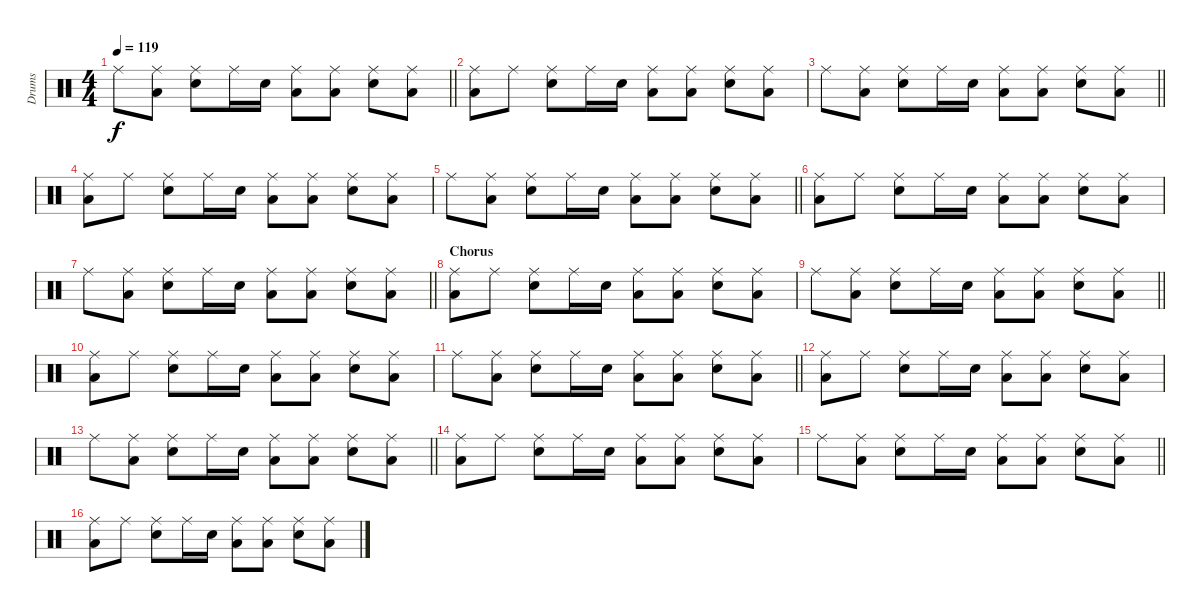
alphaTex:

\track ("Drums" "Drums") {instrument percussion}
\staff {score}
\articulation defaults
\ts (4 4)
\tempo 119
\clef neutral
\barLineRight lightlight
\ks c "Ride (middle)".8{dy f}
("Ride (middle)" "Low Floor Tom (hit)").8 ("Ride (middle)" "Electric Snare (hit)").8 "Ride (middle)".16 "Electric Snare (hit)".16 ("Ride (middle)" "Low Floor Tom (hit)").8 ("Ride (middle)" "Low Floor Tom (hit)").8 ("Ride (middle)" "Electric Snare (hit)").8 ("Ride (middle)" "Low Floor Tom (hit)").8 |
("Ride (middle)" "Low Floor Tom (hit)").8 "Ride (middle)".8 ("Ride (middle)" "Electric Snare (hit)").8 "Ride (middle)".16 "Electric Snare (hit)".16 ("Ride (middle)" "Low Floor Tom (hit)").8 ("Ride (middle)" "Low Floor Tom (hit)").8 ("Ride (middle)" "Electric Snare (hit)").8 ("Ride (middle)" "Low Floor Tom (hit)").8 |
\barLineRight lightlight "Ride (middle)".8
("Ride (middle)" "Low Floor Tom (hit)").8 ("Ride (middle)" "Electric Snare (hit)").8 "Ride (middle)".16 "Electric Snare (hit)".16 ("Ride (middle)" "Low Floor Tom (hit)").8 ("Ride (middle)" "Low Floor Tom (hit)").8 ("Ride (middle)" "Electric Snare (hit)").8 ("Ride (middle)" "Low Floor Tom (hit)").8 |
("Ride (middle)" "Low Floor Tom (hit)").8 "Ride (middle)".8 ("Ride (middle)" "Electric Snare (hit)").8 "Ride (middle)".16 "Electric Snare (hit)".16 ("Ride (middle)" "Low Floor Tom (hit)").8 ("Ride (middle)" "Low Floor Tom (hit)").8 ("Ride (middle)" "Electric Snare (hit)").8 ("Ride (middle)" "Low Floor Tom (hit)").8 |
\barLineRight lightlight "Ride (middle)".8
("Ride (middle)" "Low Floor Tom (hit)").8 ("Ride (middle)" "Electric Snare (hit)").8 "Ride (middle)".16 "Electric Snare (hit)".16 ("Ride (middle)" "Low Floor Tom (hit)").8 ("Ride (middle)" "Low Floor Tom (hit)").8 ("Ride (middle)" "Electric Snare (hit)").8 ("Ride (middle)" "Low Floor Tom (hit)").8 |
("Ride (middle)" "Low Floor Tom (hit)").8 "Ride (middle)".8 ("Ride (middle)" "Electric Snare (hit)").8 "Ride (middle)".16 "Electric Snare (hit)".16 ("Ride (middle)" "Low Floor Tom (hit)").8 ("Ride (middle)" "Low Floor Tom (hit)").8 ("Ride (middle)" "Electric Snare (hit)").8 ("Ride (middle)" "Low Floor Tom (hit)").8 |
\barLineRight lightlight "Ride (middle)".8
("Ride (middle)" "Low Floor Tom (hit)").8 ("Ride (middle)" "Electric Snare (hit)").8 "Ride (middle)".16 "Electric Snare (hit)".16 ("Ride (middle)" "Low Floor Tom (hit)").8 ("Ride (middle)" "Low Floor Tom (hit)").8 ("Ride (middle)" "Electric Snare (hit)").8 ("Ride (middle)" "Low Floor Tom (hit)").8 |
\section ("" "Chorus")
("Ride (middle)" "Low Floor Tom (hit)").8 "Ride (middle)".8 ("Ride (middle)" "Electric Snare (hit)").8 "Ride (middle)".16 "Electric Snare (hit)".16 ("Ride (middle)" "Low Floor Tom (hit)").8 ("Ride (middle)" "Low Floor Tom (hit)").8 ("Ride (middle)" "Electric Snare (hit)").8 ("Ride (middle)" "Low Floor Tom (hit)").8 |
\barLineRight lightlight "Ride (middle)".8
("Ride (middle)" "Low Floor Tom (hit)").8 ("Ride (middle)" "Electric Snare (hit)").8 "Ride (middle)".16 "Electric Snare (hit)".16 ("Ride (middle)" "Low Floor Tom (hit)").8 ("Ride (middle)" "Low Floor Tom (hit)").8 ("Ride (middle)" "Electric Snare (hit)").8 ("Ride (middle)" "Low Floor Tom (hit)").8 |
("Ride (middle)" "Low Floor Tom (hit)").8 "Ride (middle)".8 ("Ride (middle)" "Electric Snare (hit)").8 "Ride (middle)".16 "Electric Snare (hit)".16 ("Ride (middle)" "Low Floor Tom (hit)").8 ("Ride (middle)" "Low Floor Tom (hit)").8 ("Ride (middle)" "Electric Snare (hit)").8 ("Ride (middle)" "Low Floor Tom (hit)").8 |
\barLineRight lightlight "Ride (middle)".8
("Ride (middle)" "Low Floor Tom (hit)").8 ("Ride (middle)" "Electric Snare (hit)").8 "Ride (middle)".16 "Electric Snare (hit)".16 ("Ride (middle)" "Low Floor Tom (hit)").8 ("Ride (middle)" "Low Floor Tom (hit)").8 ("Ride (middle)" "Electric Snare (hit)").8 ("Ride (middle)" "Low Floor Tom (hit)").8 |
("Ride (middle)" "Low Floor Tom (hit)").8 "Ride (middle)".8 ("Ride (middle)" "Electric Snare (hit)").8 "Ride (middle)".16 "Electric Snare (hit)".16 ("Ride (middle)" "Low Floor Tom (hit)").8 ("Ride (middle)" "Low Floor Tom (hit)").8 ("Ride (middle)" "Electric Snare (hit)").8 ("Ride (middle)" "Low Floor Tom (hit)").8 |
\barLineRight lightlight "Ride (middle)".8
("Ride (middle)" "Low Floor Tom (hit)").8 ("Ride (middle)" "Electric Snare (hit)").8 "Ride (middle)".16 "Electric Snare (hit)".16 ("Ride (middle)" "Low Floor Tom (hit)").8 ("Ride (middle)" "Low Floor Tom (hit)").8 ("Ride (middle)" "Electric Snare (hit)").8 ("Ride (middle)" "Low Floor Tom (hit)").8 |
("Ride (middle)" "Low Floor Tom (hit)").8 "Ride (middle)".8 ("Ride (middle)" "Electric Snare (hit)").8 "Ride (middle)".16 "Electric Snare (hit)".16 ("Ride (middle)" "Low Floor Tom (hit)").8 ("Ride (middle)" "Low Floor Tom (hit)").8 ("Ride (middle)" "Electric Snare (hit)").8 ("Ride (middle)" "Low Floor Tom (hit)").8 |
\barLineRight lightlight "Ride (middle)".8
("Ride (middle)" "Low Floor Tom (hit)").8 ("Ride (middle)" "Electric Snare (hit)").8 "Ride (middle)".16 "Electric Snare (hit)".16 ("Ride (middle)" "Low Floor Tom (hit)").8 ("Ride (middle)" "Low Floor Tom (hit)").8 ("Ride (middle)" "Electric Snare (hit)").8 ("Ride (middle)" "Low Floor Tom (hit)").8 |
("Ride (middle)" "Low Floor Tom (hit)").8 "Ride (middle)".8 ("Ride (middle)" "Electric Snare (hit)").8 "Ride (middle)".16 "Electric Snare (hit)".16 ("Ride (middle)" "Low Floor Tom (hit)").8 ("Ride (middle)" "Low Floor Tom (hit)").8 ("Ride (middle)" "Electric Snare (hit)").8 ("Ride (middle)" "Low Floor Tom (hit)").8
